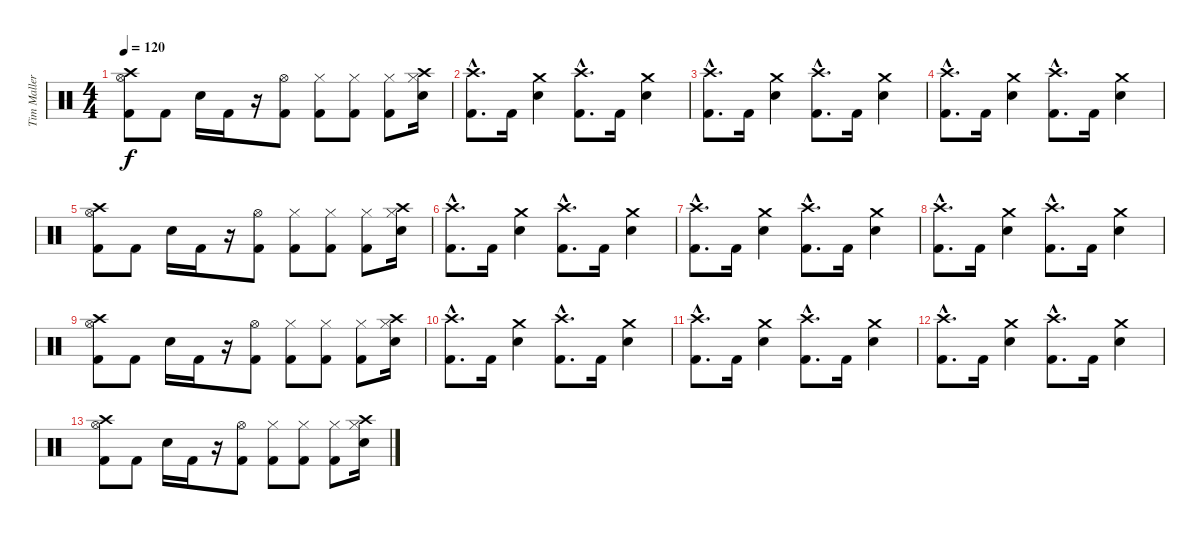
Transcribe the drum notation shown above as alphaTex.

\track ("Tim Mallere" "Tim Maller") {instrument percussion}
\staff {score}
\articulation defaults
\ts (4 4)
\tempo 120
\clef neutral
\ks c
("Crash high (hit)" "Hi-Hat (open)" "Kick (hit) 2").8{dy f} "Kick (hit) 2".8 "Electric Snare (hit)".16 "Kick (hit) 2".16 r.16 ("Hi-Hat (open)" "Kick (hit) 2").8 ("Hi-Hat (closed)" "Kick (hit) 2").8 ("Hi-Hat (closed)" "Kick (hit) 2").8 ("Hi-Hat (closed)" "Kick (hit) 2").8 ("Crash high (hit)" "Hi-Hat (closed)" "Electric Snare (hit)").16 |
("Crash high (hit)"{hac} "Kick (hit) 2"{hac}).8{d} "Kick (hit) 2".16 ("Crash medium (hit)" "Electric Snare (hit)").4 ("Crash high (hit)"{hac} "Kick (hit) 2"{hac}).8{d} "Kick (hit) 2".16 ("Crash medium (hit)" "Electric Snare (hit)").4 |
("Crash high (hit)"{hac} "Kick (hit) 2"{hac}).8{d} "Kick (hit) 2".16 ("Crash medium (hit)" "Electric Snare (hit)").4 ("Crash high (hit)"{hac} "Kick (hit) 2"{hac}).8{d} "Kick (hit) 2".16 ("Crash medium (hit)" "Electric Snare (hit)").4 |
("Crash high (hit)"{hac} "Kick (hit) 2"{hac}).8{d} "Kick (hit) 2".16 ("Crash medium (hit)" "Electric Snare (hit)").4 ("Crash high (hit)"{hac} "Kick (hit) 2"{hac}).8{d} "Kick (hit) 2".16 ("Crash medium (hit)" "Electric Snare (hit)").4 |
("Crash high (hit)" "Hi-Hat (open)" "Kick (hit) 2").8 "Kick (hit) 2".8 "Electric Snare (hit)".16 "Kick (hit) 2".16 r.16 ("Hi-Hat (open)" "Kick (hit) 2").8 ("Hi-Hat (closed)" "Kick (hit) 2").8 ("Hi-Hat (closed)" "Kick (hit) 2").8 ("Hi-Hat (closed)" "Kick (hit) 2").8 ("Crash high (hit)" "Hi-Hat (closed)" "Electric Snare (hit)").16 |
("Crash high (hit)"{hac} "Kick (hit) 2"{hac}).8{d} "Kick (hit) 2".16 ("Crash medium (hit)" "Electric Snare (hit)").4 ("Crash high (hit)"{hac} "Kick (hit) 2"{hac}).8{d} "Kick (hit) 2".16 ("Crash medium (hit)" "Electric Snare (hit)").4 |
("Crash high (hit)"{hac} "Kick (hit) 2"{hac}).8{d} "Kick (hit) 2".16 ("Crash medium (hit)" "Electric Snare (hit)").4 ("Crash high (hit)"{hac} "Kick (hit) 2"{hac}).8{d} "Kick (hit) 2".16 ("Crash medium (hit)" "Electric Snare (hit)").4 |
("Crash high (hit)"{hac} "Kick (hit) 2"{hac}).8{d} "Kick (hit) 2".16 ("Crash medium (hit)" "Electric Snare (hit)").4 ("Crash high (hit)"{hac} "Kick (hit) 2"{hac}).8{d} "Kick (hit) 2".16 ("Crash medium (hit)" "Electric Snare (hit)").4 |
("Crash high (hit)" "Hi-Hat (open)" "Kick (hit) 2").8 "Kick (hit) 2".8 "Electric Snare (hit)".16 "Kick (hit) 2".16 r.16 ("Hi-Hat (open)" "Kick (hit) 2").8 ("Hi-Hat (closed)" "Kick (hit) 2").8 ("Hi-Hat (closed)" "Kick (hit) 2").8 ("Hi-Hat (closed)" "Kick (hit) 2").8 ("Crash high (hit)" "Hi-Hat (closed)" "Electric Snare (hit)").16 |
("Crash high (hit)"{hac} "Kick (hit) 2"{hac}).8{d} "Kick (hit) 2".16 ("Crash medium (hit)" "Electric Snare (hit)").4 ("Crash high (hit)"{hac} "Kick (hit) 2"{hac}).8{d} "Kick (hit) 2".16 ("Crash medium (hit)" "Electric Snare (hit)").4 |
("Crash high (hit)"{hac} "Kick (hit) 2"{hac}).8{d} "Kick (hit) 2".16 ("Crash medium (hit)" "Electric Snare (hit)").4 ("Crash high (hit)"{hac} "Kick (hit) 2"{hac}).8{d} "Kick (hit) 2".16 ("Crash medium (hit)" "Electric Snare (hit)").4 |
("Crash high (hit)"{hac} "Kick (hit) 2"{hac}).8{d} "Kick (hit) 2".16 ("Crash medium (hit)" "Electric Snare (hit)").4 ("Crash high (hit)"{hac} "Kick (hit) 2"{hac}).8{d} "Kick (hit) 2".16 ("Crash medium (hit)" "Electric Snare (hit)").4 |
("Crash high (hit)" "Hi-Hat (open)" "Kick (hit) 2").8 "Kick (hit) 2".8 "Electric Snare (hit)".16 "Kick (hit) 2".16 r.16 ("Hi-Hat (open)" "Kick (hit) 2").8 ("Hi-Hat (closed)" "Kick (hit) 2").8 ("Hi-Hat (closed)" "Kick (hit) 2").8 ("Hi-Hat (closed)" "Kick (hit) 2").8 ("Crash high (hit)" "Hi-Hat (closed)" "Electric Snare (hit)").16
